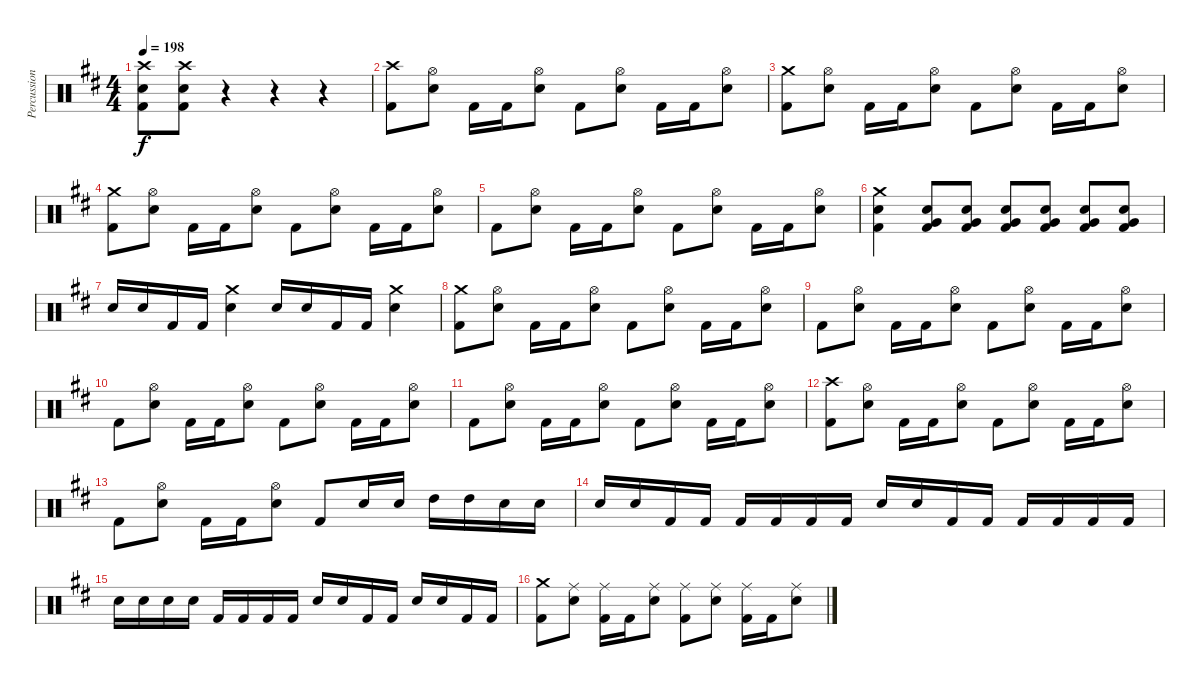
\track ("Percussion" "Percussion") {instrument percussion}
\staff {score}
\articulation defaults
\ts (4 4)
\tempo 198
\clef neutral
\ks bminor
("Crash high (hit)" "Snare (hit) 2" "Kick (hit) 2").8{dy f} ("Crash high (hit)" "Snare (hit) 2" "Kick (hit) 2").8 r.4 r.4 r.4 |
("Crash high (hit)" "Kick (hit) 2").8 ("Hi-Hat (open)" "Snare (hit) 2").8 "Kick (hit) 2".16 "Kick (hit) 2".16 ("Hi-Hat (open)" "Snare (hit) 2").8 "Kick (hit) 2".8 ("Hi-Hat (open)" "Snare (hit) 2").8 "Kick (hit) 2".16 "Kick (hit) 2".16 ("Hi-Hat (open)" "Snare (hit) 2").8 |
("Crash medium (hit)" "Kick (hit) 2").8 ("Hi-Hat (open)" "Snare (hit) 2").8 "Kick (hit) 2".16 "Kick (hit) 2".16 ("Hi-Hat (open)" "Snare (hit) 2").8 "Kick (hit) 2".8 ("Hi-Hat (open)" "Snare (hit) 2").8 "Kick (hit) 2".16 "Kick (hit) 2".16 ("Hi-Hat (open)" "Snare (hit) 2").8 |
("Crash medium (hit)" "Kick (hit) 2").8 ("Hi-Hat (open)" "Snare (hit) 2").8 "Kick (hit) 2".16 "Kick (hit) 2".16 ("Hi-Hat (open)" "Snare (hit) 2").8 "Kick (hit) 2".8 ("Hi-Hat (open)" "Snare (hit) 2").8 "Kick (hit) 2".16 "Kick (hit) 2".16 ("Hi-Hat (open)" "Snare (hit) 2").8 |
"Kick (hit) 2".8 ("Hi-Hat (open)" "Snare (hit) 2").8 "Kick (hit) 2".16 "Kick (hit) 2".16 ("Hi-Hat (open)" "Snare (hit) 2").8 "Kick (hit) 2".8 ("Hi-Hat (open)" "Snare (hit) 2").8 "Kick (hit) 2".16 "Kick (hit) 2".16 ("Hi-Hat (open)" "Snare (hit) 2").8 |
("Crash medium (hit)" "Snare (hit) 2" "Kick (hit) 2").4 ("Snare (hit) 2" "Very Low Tom (hit)" "Kick (hit) 2").8 ("Snare (hit) 2" "Very Low Tom (hit)" "Kick (hit) 2").8 ("Snare (hit) 2" "Very Low Tom (hit)" "Kick (hit) 2").8 ("Snare (hit) 2" "Very Low Tom (hit)" "Kick (hit) 2").8 ("Snare (hit) 2" "Very Low Tom (hit)" "Kick (hit) 2").8 ("Snare (hit) 2" "Very Low Tom (hit)" "Kick (hit) 2").8 |
"Snare (hit) 2".16 "Snare (hit) 2".16 "Kick (hit) 2".16 "Kick (hit) 2".16 ("Crash medium (hit)" "Snare (hit) 2").4 "Snare (hit) 2".16 "Snare (hit) 2".16 "Kick (hit) 2".16 "Kick (hit) 2".16 ("Crash medium (hit)" "Snare (hit) 2").4 |
("Crash medium (hit)" "Kick (hit) 2").8 ("Hi-Hat (open)" "Snare (hit) 2").8 "Kick (hit) 2".16 "Kick (hit) 2".16 ("Hi-Hat (open)" "Snare (hit) 2").8 "Kick (hit) 2".8 ("Hi-Hat (open)" "Snare (hit) 2").8 "Kick (hit) 2".16 "Kick (hit) 2".16 ("Hi-Hat (open)" "Snare (hit) 2").8 |
"Kick (hit) 2".8 ("Hi-Hat (open)" "Snare (hit) 2").8 "Kick (hit) 2".16 "Kick (hit) 2".16 ("Hi-Hat (open)" "Snare (hit) 2").8 "Kick (hit) 2".8 ("Hi-Hat (open)" "Snare (hit) 2").8 "Kick (hit) 2".16 "Kick (hit) 2".16 ("Hi-Hat (open)" "Snare (hit) 2").8 |
"Kick (hit) 2".8 ("Hi-Hat (open)" "Snare (hit) 2").8 "Kick (hit) 2".16 "Kick (hit) 2".16 ("Hi-Hat (open)" "Snare (hit) 2").8 "Kick (hit) 2".8 ("Hi-Hat (open)" "Snare (hit) 2").8 "Kick (hit) 2".16 "Kick (hit) 2".16 ("Hi-Hat (open)" "Snare (hit) 2").8 |
"Kick (hit) 2".8 ("Hi-Hat (open)" "Snare (hit) 2").8 "Kick (hit) 2".16 "Kick (hit) 2".16 ("Hi-Hat (open)" "Snare (hit) 2").8 "Kick (hit) 2".8 ("Hi-Hat (open)" "Snare (hit) 2").8 "Kick (hit) 2".16 "Kick (hit) 2".16 ("Hi-Hat (open)" "Snare (hit) 2").8 |
("Crash high (hit)" "Kick (hit) 2").8 ("Hi-Hat (open)" "Snare (hit) 2").8 "Kick (hit) 2".16 "Kick (hit) 2".16 ("Hi-Hat (open)" "Snare (hit) 2").8 "Kick (hit) 2".8 ("Hi-Hat (open)" "Snare (hit) 2").8 "Kick (hit) 2".16 "Kick (hit) 2".16 ("Hi-Hat (open)" "Snare (hit) 2").8 |
"Kick (hit) 2".8 ("Hi-Hat (open)" "Snare (hit) 2").8 "Kick (hit) 2".16 "Kick (hit) 2".16 ("Hi-Hat (open)" "Snare (hit) 2").8 "Kick (hit) 2".8 "Snare (hit) 2".16 "Snare (hit) 2".16 "High Tom (hit)".16 "High Tom (hit)".16 "Snare (hit) 2".16 "Snare (hit) 2".16 |
"Snare (hit) 2".16 "Snare (hit) 2".16 "Kick (hit) 2".16 "Kick (hit) 2".16 "Kick (hit) 2".16 "Kick (hit) 2".16 "Kick (hit) 2".16 "Kick (hit) 2".16 "Snare (hit) 2".16 "Snare (hit) 2".16 "Kick (hit) 2".16 "Kick (hit) 2".16 "Kick (hit) 2".16 "Kick (hit) 2".16 "Kick (hit) 2".16 "Kick (hit) 2".16 |
"Snare (hit) 2".16 "Snare (hit) 2".16 "Snare (hit) 2".16 "Snare (hit) 2".16 "Kick (hit) 2".16 "Kick (hit) 2".16 "Kick (hit) 2".16 "Kick (hit) 2".16 "Snare (hit) 2".16 "Snare (hit) 2".16 "Kick (hit) 2".16 "Kick (hit) 2".16 "Snare (hit) 2".16 "Snare (hit) 2".16 "Kick (hit) 2".16 "Kick (hit) 2".16 |
("Crash medium (hit)" "Kick (hit) 2").8 ("Ride (middle)" "Snare (hit) 2").8 ("Ride (middle)" "Kick (hit) 2").16 "Kick (hit) 2".16 ("Ride (middle)" "Snare (hit) 2").8 ("Ride (middle)" "Kick (hit) 2").8 ("Ride (middle)" "Snare (hit) 2").8 ("Ride (middle)" "Kick (hit) 2").16 "Kick (hit) 2".16 ("Ride (middle)" "Snare (hit) 2").8
